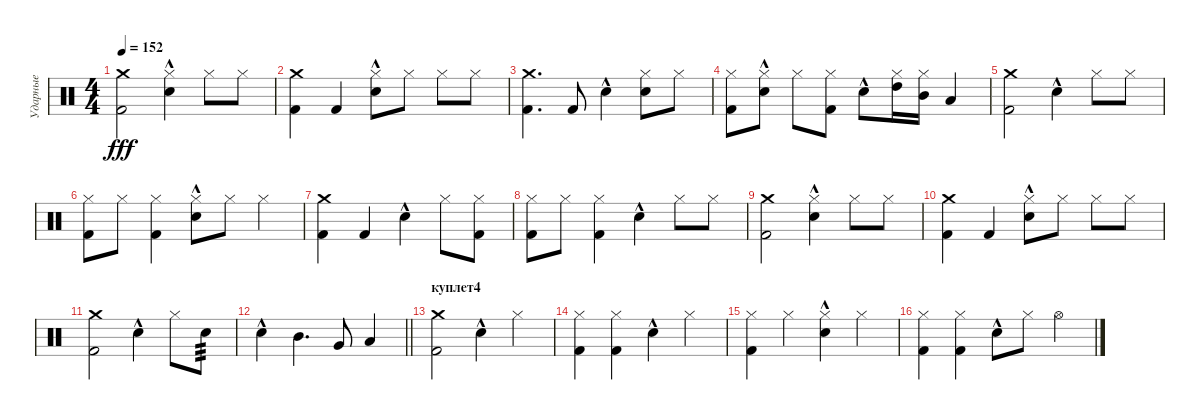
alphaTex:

\track ("Ударные" "Ударные") {instrument percussion}
\staff {score}
\articulation defaults
\ts (4 4)
\tempo 152
\clef neutral
\ks c
("Crash medium (hit)" "Kick (hit) 2").2{dy fff} ("Hi-Hat (closed)" "Electric Snare (hit)"{hac}).4 "Hi-Hat (closed)".8 "Hi-Hat (closed)".8 |
("Crash medium (hit)" "Kick (hit) 2").4 "Kick (hit) 2".4 ("Hi-Hat (closed)" "Electric Snare (hit)"{hac}).8 "Hi-Hat (closed)".8 "Hi-Hat (closed)".8 "Hi-Hat (closed)".8 |
("Crash medium (hit)" "Kick (hit) 2").4{d} "Kick (hit) 2".8 "Electric Snare (hit)"{hac}.4 ("Hi-Hat (closed)" "Electric Snare (hit)").8 "Hi-Hat (closed)".8 |
("Hi-Hat (closed)" "Kick (hit) 2").8 ("Hi-Hat (closed)" "Electric Snare (hit)"{hac}).8 "Hi-Hat (closed)".8 ("Hi-Hat (closed)" "Kick (hit) 2").8 "Electric Snare (hit)"{hac}.8 ("Hi-Hat (closed)" "High Tom (hit)").16 ("Hi-Hat (closed)" "Mid Tom (hit)").16 "Low Tom (hit)".4 |
("Crash medium (hit)" "Kick (hit) 2").2 "Electric Snare (hit)"{hac}.4 "Hi-Hat (closed)".8 "Hi-Hat (closed)".8 |
("Hi-Hat (closed)" "Kick (hit) 2").8 "Hi-Hat (closed)".8 ("Hi-Hat (closed)" "Kick (hit) 2").4 ("Hi-Hat (closed)" "Electric Snare (hit)"{hac}).8 "Hi-Hat (closed)".8 "Hi-Hat (closed)".4 |
("Crash medium (hit)" "Kick (hit) 2").4 "Kick (hit) 2".4 "Electric Snare (hit)"{hac}.4 "Hi-Hat (closed)".8 ("Hi-Hat (closed)" "Kick (hit) 2").8 |
("Hi-Hat (closed)" "Kick (hit) 2").8 "Hi-Hat (closed)".8 ("Hi-Hat (closed)" "Kick (hit) 2").4 "Electric Snare (hit)"{hac}.4 "Hi-Hat (closed)".8 "Hi-Hat (closed)".8 |
("Crash medium (hit)" "Kick (hit) 2").2 ("Hi-Hat (closed)" "Electric Snare (hit)"{hac}).4 "Hi-Hat (closed)".8 "Hi-Hat (closed)".8 |
("Crash medium (hit)" "Kick (hit) 2").4 "Kick (hit) 2".4 ("Hi-Hat (closed)" "Electric Snare (hit)"{hac}).8 "Hi-Hat (closed)".8 "Hi-Hat (closed)".8 "Hi-Hat (closed)".8 |
("Crash medium (hit)" "Kick (hit) 2").2 "Electric Snare (hit)"{hac}.4 "Hi-Hat (closed)".8 "Electric Snare (hit)".8{tp 3} |
\barLineRight lightlight "Electric Snare (hit)"{hac}.4 "Mid Tom (hit)".4{d} "Very Low Tom (hit)".8 "Low Floor Tom (hit)".4
|
\section ("" "куплет4")
("Crash medium (hit)" "Kick (hit) 2").2 "Electric Snare (hit)"{hac}.4 "Hi-Hat (closed)".4 |
("Hi-Hat (closed)" "Kick (hit) 2").4 ("Hi-Hat (closed)" "Kick (hit) 2").4 "Electric Snare (hit)"{hac}.4 "Hi-Hat (closed)".4 |
("Hi-Hat (closed)" "Kick (hit) 2").4 "Hi-Hat (closed)".4 ("Hi-Hat (closed)" "Electric Snare (hit)"{hac}).4 "Hi-Hat (closed)".4 |
("Hi-Hat (closed)" "Kick (hit) 2").4 ("Hi-Hat (closed)" "Kick (hit) 2").4 "Electric Snare (hit)"{hac}.8 "Hi-Hat (closed)".8 "Hi-Hat (open)".4
